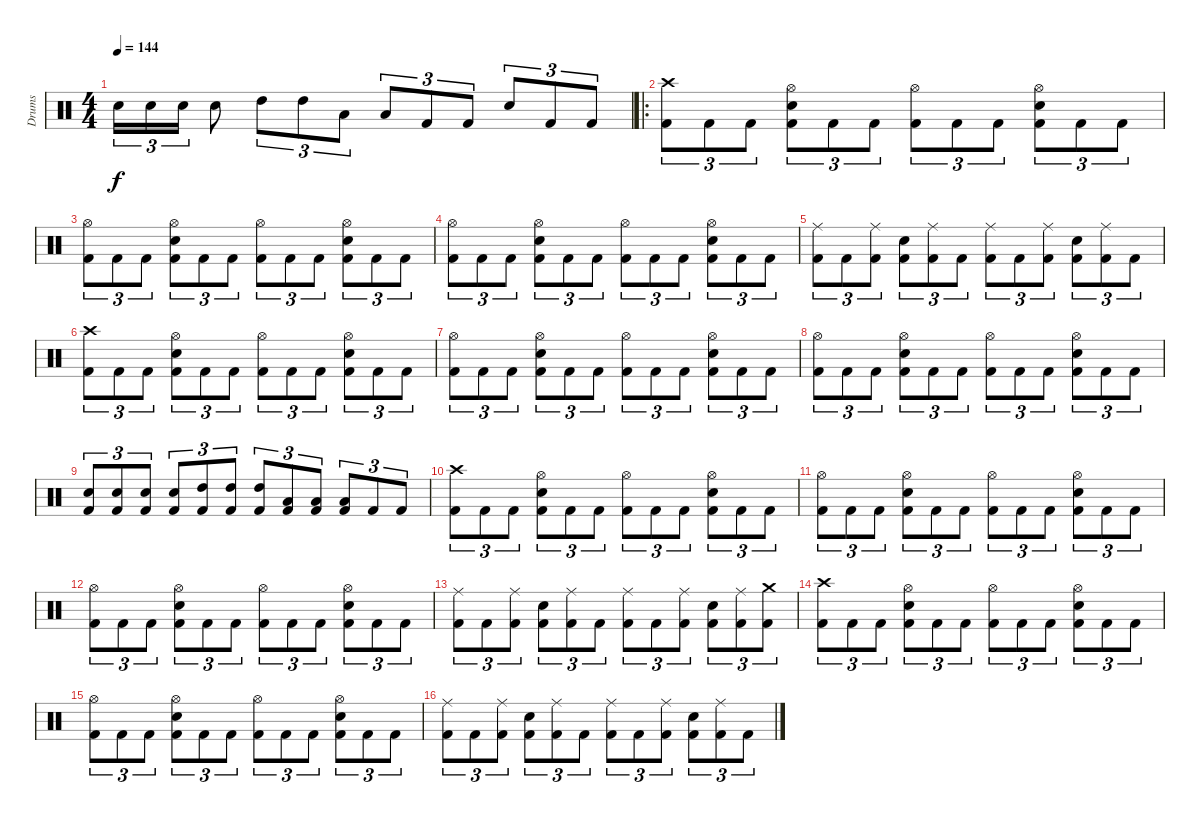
\track ("Drums" "Drums") {instrument percussion}
\staff {score}
\articulation defaults
\ts (4 4)
\tempo 144
\clef neutral
\ks c "Snare (hit) 2".16{tu (3 2) dy f} "Snare (hit) 2".16{tu (3 2)} "Snare (hit) 2".16{tu (3 2)} "Snare (hit) 2".8 "High Tom (hit)".8{tu (3 2)} "High Tom (hit)".8{tu (3 2)} "Low Tom (hit)".8{tu (3 2)} "Low Tom (hit)".8{tu (3 2)} "Kick (hit) 2".8{tu (3 2)} "Kick (hit) 2".8{tu (3 2)} "Snare (hit) 2".8{tu (3 2)} "Kick (hit) 2".8{tu (3 2)} "Kick (hit) 2".8{tu (3 2)}
|
\ro
("Crash high (hit)" "Kick (hit) 2").8{tu (3 2)} "Kick (hit) 2".8{tu (3 2)} "Kick (hit) 2".8{tu (3 2)} ("Hi-Hat (open)" "Snare (hit) 2" "Kick (hit) 2").8{tu (3 2)} "Kick (hit) 2".8{tu (3 2)} "Kick (hit) 2".8{tu (3 2)} ("Hi-Hat (open)" "Kick (hit) 2").8{tu (3 2)} "Kick (hit) 2".8{tu (3 2)} "Kick (hit) 2".8{tu (3 2)} ("Hi-Hat (open)" "Snare (hit) 2" "Kick (hit) 2").8{tu (3 2)} "Kick (hit) 2".8{tu (3 2)} "Kick (hit) 2".8{tu (3 2)} |
("Hi-Hat (open)" "Kick (hit) 2").8{tu (3 2)} "Kick (hit) 2".8{tu (3 2)} "Kick (hit) 2".8{tu (3 2)} ("Hi-Hat (open)" "Snare (hit) 2" "Kick (hit) 2").8{tu (3 2)} "Kick (hit) 2".8{tu (3 2)} "Kick (hit) 2".8{tu (3 2)} ("Hi-Hat (open)" "Kick (hit) 2").8{tu (3 2)} "Kick (hit) 2".8{tu (3 2)} "Kick (hit) 2".8{tu (3 2)} ("Hi-Hat (open)" "Snare (hit) 2" "Kick (hit) 2").8{tu (3 2)} "Kick (hit) 2".8{tu (3 2)} "Kick (hit) 2".8{tu (3 2)} |
("Hi-Hat (open)" "Kick (hit) 2").8{tu (3 2)} "Kick (hit) 2".8{tu (3 2)} "Kick (hit) 2".8{tu (3 2)} ("Hi-Hat (open)" "Snare (hit) 2" "Kick (hit) 2").8{tu (3 2)} "Kick (hit) 2".8{tu (3 2)} "Kick (hit) 2".8{tu (3 2)} ("Hi-Hat (open)" "Kick (hit) 2").8{tu (3 2)} "Kick (hit) 2".8{tu (3 2)} "Kick (hit) 2".8{tu (3 2)} ("Hi-Hat (open)" "Snare (hit) 2" "Kick (hit) 2").8{tu (3 2)} "Kick (hit) 2".8{tu (3 2)} "Kick (hit) 2".8{tu (3 2)} |
("Ride (middle)" "Kick (hit) 2").8{tu (3 2)} "Kick (hit) 2".8{tu (3 2)} ("Ride (middle)" "Kick (hit) 2").8{tu (3 2)} ("Snare (hit) 2" "Kick (hit) 2").8{tu (3 2)} ("Ride (middle)" "Kick (hit) 2").8{tu (3 2)} "Kick (hit) 2".8{tu (3 2)} ("Ride (middle)" "Kick (hit) 2").8{tu (3 2)} "Kick (hit) 2".8{tu (3 2)} ("Ride (middle)" "Kick (hit) 2").8{tu (3 2)} ("Snare (hit) 2" "Kick (hit) 2").8{tu (3 2)} ("Ride (middle)" "Kick (hit) 2").8{tu (3 2)} "Kick (hit) 2".8{tu (3 2)} |
("Crash high (hit)" "Kick (hit) 2").8{tu (3 2)} "Kick (hit) 2".8{tu (3 2)} "Kick (hit) 2".8{tu (3 2)} ("Hi-Hat (open)" "Snare (hit) 2" "Kick (hit) 2").8{tu (3 2)} "Kick (hit) 2".8{tu (3 2)} "Kick (hit) 2".8{tu (3 2)} ("Hi-Hat (open)" "Kick (hit) 2").8{tu (3 2)} "Kick (hit) 2".8{tu (3 2)} "Kick (hit) 2".8{tu (3 2)} ("Hi-Hat (open)" "Snare (hit) 2" "Kick (hit) 2").8{tu (3 2)} "Kick (hit) 2".8{tu (3 2)} "Kick (hit) 2".8{tu (3 2)} |
("Hi-Hat (open)" "Kick (hit) 2").8{tu (3 2)} "Kick (hit) 2".8{tu (3 2)} "Kick (hit) 2".8{tu (3 2)} ("Hi-Hat (open)" "Snare (hit) 2" "Kick (hit) 2").8{tu (3 2)} "Kick (hit) 2".8{tu (3 2)} "Kick (hit) 2".8{tu (3 2)} ("Hi-Hat (open)" "Kick (hit) 2").8{tu (3 2)} "Kick (hit) 2".8{tu (3 2)} "Kick (hit) 2".8{tu (3 2)} ("Hi-Hat (open)" "Snare (hit) 2" "Kick (hit) 2").8{tu (3 2)} "Kick (hit) 2".8{tu (3 2)} "Kick (hit) 2".8{tu (3 2)} |
("Hi-Hat (open)" "Kick (hit) 2").8{tu (3 2)} "Kick (hit) 2".8{tu (3 2)} "Kick (hit) 2".8{tu (3 2)} ("Hi-Hat (open)" "Snare (hit) 2" "Kick (hit) 2").8{tu (3 2)} "Kick (hit) 2".8{tu (3 2)} "Kick (hit) 2".8{tu (3 2)} ("Hi-Hat (open)" "Kick (hit) 2").8{tu (3 2)} "Kick (hit) 2".8{tu (3 2)} "Kick (hit) 2".8{tu (3 2)} ("Hi-Hat (open)" "Snare (hit) 2" "Kick (hit) 2").8{tu (3 2)} "Kick (hit) 2".8{tu (3 2)} "Kick (hit) 2".8{tu (3 2)} |
("Snare (hit) 2" "Kick (hit) 2").8{tu (3 2)} ("Snare (hit) 2" "Kick (hit) 2").8{tu (3 2)} ("Snare (hit) 2" "Kick (hit) 2").8{tu (3 2)} ("Snare (hit) 2" "Kick (hit) 2").8{tu (3 2)} ("High Tom (hit)" "Kick (hit) 2").8{tu (3 2)} ("High Tom (hit)" "Kick (hit) 2").8{tu (3 2)} ("High Tom (hit)" "Kick (hit) 2").8{tu (3 2)} ("Low Tom (hit)" "Kick (hit) 2").8{tu (3 2)} ("Low Tom (hit)" "Kick (hit) 2").8{tu (3 2)} ("Low Tom (hit)" "Kick (hit) 2").8{tu (3 2)} "Kick (hit) 2".8{tu (3 2)} "Kick (hit) 2".8{tu (3 2)} |
("Crash high (hit)" "Kick (hit) 2").8{tu (3 2)} "Kick (hit) 2".8{tu (3 2)} "Kick (hit) 2".8{tu (3 2)} ("Hi-Hat (open)" "Snare (hit) 2" "Kick (hit) 2").8{tu (3 2)} "Kick (hit) 2".8{tu (3 2)} "Kick (hit) 2".8{tu (3 2)} ("Hi-Hat (open)" "Kick (hit) 2").8{tu (3 2)} "Kick (hit) 2".8{tu (3 2)} "Kick (hit) 2".8{tu (3 2)} ("Hi-Hat (open)" "Snare (hit) 2" "Kick (hit) 2").8{tu (3 2)} "Kick (hit) 2".8{tu (3 2)} "Kick (hit) 2".8{tu (3 2)} |
("Hi-Hat (open)" "Kick (hit) 2").8{tu (3 2)} "Kick (hit) 2".8{tu (3 2)} "Kick (hit) 2".8{tu (3 2)} ("Hi-Hat (open)" "Snare (hit) 2" "Kick (hit) 2").8{tu (3 2)} "Kick (hit) 2".8{tu (3 2)} "Kick (hit) 2".8{tu (3 2)} ("Hi-Hat (open)" "Kick (hit) 2").8{tu (3 2)} "Kick (hit) 2".8{tu (3 2)} "Kick (hit) 2".8{tu (3 2)} ("Hi-Hat (open)" "Snare (hit) 2" "Kick (hit) 2").8{tu (3 2)} "Kick (hit) 2".8{tu (3 2)} "Kick (hit) 2".8{tu (3 2)} |
("Hi-Hat (open)" "Kick (hit) 2").8{tu (3 2)} "Kick (hit) 2".8{tu (3 2)} "Kick (hit) 2".8{tu (3 2)} ("Hi-Hat (open)" "Snare (hit) 2" "Kick (hit) 2").8{tu (3 2)} "Kick (hit) 2".8{tu (3 2)} "Kick (hit) 2".8{tu (3 2)} ("Hi-Hat (open)" "Kick (hit) 2").8{tu (3 2)} "Kick (hit) 2".8{tu (3 2)} "Kick (hit) 2".8{tu (3 2)} ("Hi-Hat (open)" "Snare (hit) 2" "Kick (hit) 2").8{tu (3 2)} "Kick (hit) 2".8{tu (3 2)} "Kick (hit) 2".8{tu (3 2)} |
("Ride (middle)" "Kick (hit) 2").8{tu (3 2)} "Kick (hit) 2".8{tu (3 2)} ("Ride (middle)" "Kick (hit) 2").8{tu (3 2)} ("Snare (hit) 2" "Kick (hit) 2").8{tu (3 2)} ("Ride (middle)" "Kick (hit) 2").8{tu (3 2)} "Kick (hit) 2".8{tu (3 2)} ("Ride (middle)" "Kick (hit) 2").8{tu (3 2)} "Kick (hit) 2".8{tu (3 2)} ("Ride (middle)" "Kick (hit) 2").8{tu (3 2)} ("Snare (hit) 2" "Kick (hit) 2").8{tu (3 2)} ("Ride (middle)" "Kick (hit) 2").8{tu (3 2)} ("Crash medium (hit)" "Kick (hit) 2").8{tu (3 2)} |
("Crash high (hit)" "Kick (hit) 2").8{tu (3 2)} "Kick (hit) 2".8{tu (3 2)} "Kick (hit) 2".8{tu (3 2)} ("Hi-Hat (open)" "Snare (hit) 2" "Kick (hit) 2").8{tu (3 2)} "Kick (hit) 2".8{tu (3 2)} "Kick (hit) 2".8{tu (3 2)} ("Hi-Hat (open)" "Kick (hit) 2").8{tu (3 2)} "Kick (hit) 2".8{tu (3 2)} "Kick (hit) 2".8{tu (3 2)} ("Hi-Hat (open)" "Snare (hit) 2" "Kick (hit) 2").8{tu (3 2)} "Kick (hit) 2".8{tu (3 2)} "Kick (hit) 2".8{tu (3 2)} |
("Hi-Hat (open)" "Kick (hit) 2").8{tu (3 2)} "Kick (hit) 2".8{tu (3 2)} "Kick (hit) 2".8{tu (3 2)} ("Hi-Hat (open)" "Snare (hit) 2" "Kick (hit) 2").8{tu (3 2)} "Kick (hit) 2".8{tu (3 2)} "Kick (hit) 2".8{tu (3 2)} ("Hi-Hat (open)" "Kick (hit) 2").8{tu (3 2)} "Kick (hit) 2".8{tu (3 2)} "Kick (hit) 2".8{tu (3 2)} ("Hi-Hat (open)" "Snare (hit) 2" "Kick (hit) 2").8{tu (3 2)} "Kick (hit) 2".8{tu (3 2)} "Kick (hit) 2".8{tu (3 2)} |
("Ride (middle)" "Kick (hit) 2").8{tu (3 2)} "Kick (hit) 2".8{tu (3 2)} ("Ride (middle)" "Kick (hit) 2").8{tu (3 2)} ("Snare (hit) 2" "Kick (hit) 2").8{tu (3 2)} ("Ride (middle)" "Kick (hit) 2").8{tu (3 2)} "Kick (hit) 2".8{tu (3 2)} ("Ride (middle)" "Kick (hit) 2").8{tu (3 2)} "Kick (hit) 2".8{tu (3 2)} ("Ride (middle)" "Kick (hit) 2").8{tu (3 2)} ("Snare (hit) 2" "Kick (hit) 2").8{tu (3 2)} ("Ride (middle)" "Kick (hit) 2").8{tu (3 2)} "Kick (hit) 2".8{tu (3 2)}
